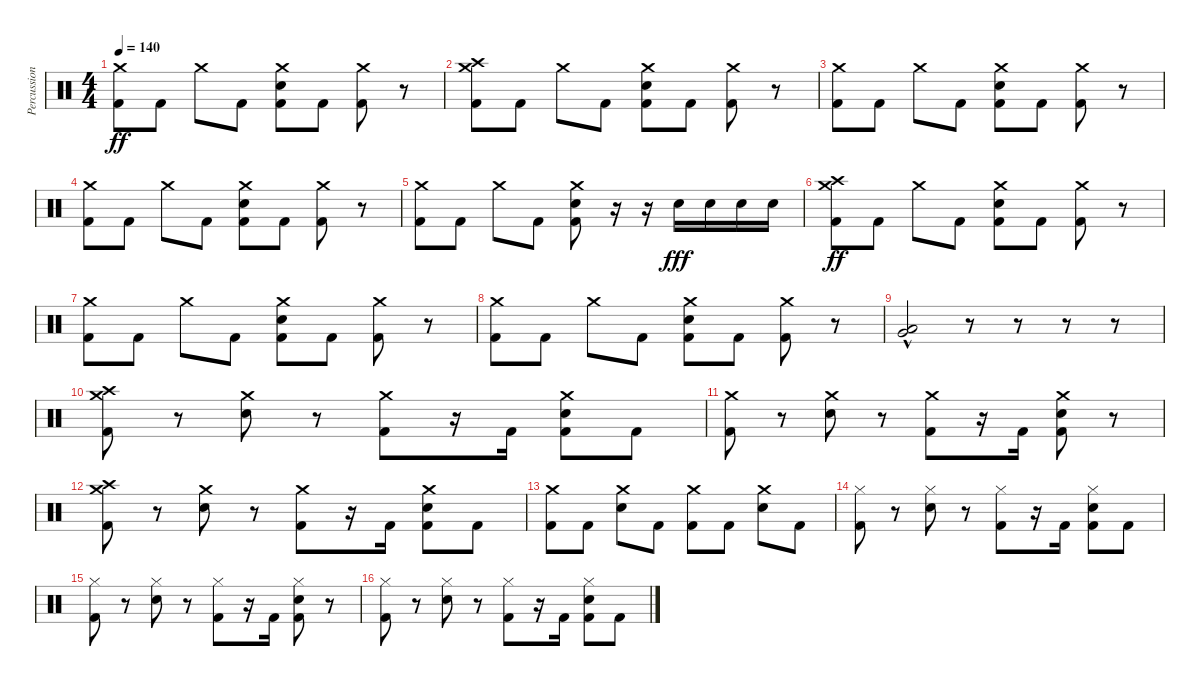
\track ("Percussion" "Percussion") {instrument percussion}
\staff {score}
\articulation defaults
\ts (4 4)
\tempo 140
\clef neutral
\ks c
("Crash medium (hit)" "Kick (hit) 2").8{dy ff} "Kick (hit) 2".8 "Crash medium (hit)".8 "Kick (hit) 2".8 ("Crash medium (hit)" "Electric Snare (hit)" "Kick (hit) 2").8 "Kick (hit) 2".8 ("Crash medium (hit)" "Kick (hit) 2").8 r.8 |
("Crash medium (hit)" "Crash high (hit)" "Kick (hit) 2").8 "Kick (hit) 2".8 "Crash medium (hit)".8 "Kick (hit) 2".8 ("Crash medium (hit)" "Electric Snare (hit)" "Kick (hit) 2").8 "Kick (hit) 2".8 ("Crash medium (hit)" "Kick (hit) 2").8 r.8 |
("Crash medium (hit)" "Kick (hit) 2").8 "Kick (hit) 2".8 "Crash medium (hit)".8 "Kick (hit) 2".8 ("Crash medium (hit)" "Electric Snare (hit)" "Kick (hit) 2").8 "Kick (hit) 2".8 ("Crash medium (hit)" "Kick (hit) 2").8 r.8 |
("Crash medium (hit)" "Kick (hit) 2").8 "Kick (hit) 2".8 "Crash medium (hit)".8 "Kick (hit) 2".8 ("Crash medium (hit)" "Electric Snare (hit)" "Kick (hit) 2").8 "Kick (hit) 2".8 ("Crash medium (hit)" "Kick (hit) 2").8 r.8 |
("Crash medium (hit)" "Kick (hit) 2").8 "Kick (hit) 2".8 "Crash medium (hit)".8 "Kick (hit) 2".8 ("Crash medium (hit)" "Electric Snare (hit)" "Kick (hit) 2").8 r.16 r.16 "Electric Snare (hit)".16{dy fff} "Electric Snare (hit)".16 "Electric Snare (hit)".16 "Electric Snare (hit)".16 |
("Crash medium (hit)" "Crash high (hit)" "Kick (hit) 2").8{dy ff} "Kick (hit) 2".8 "Crash medium (hit)".8 "Kick (hit) 2".8 ("Crash medium (hit)" "Electric Snare (hit)" "Kick (hit) 2").8 "Kick (hit) 2".8 ("Crash medium (hit)" "Kick (hit) 2").8 r.8 |
("Crash medium (hit)" "Kick (hit) 2").8 "Kick (hit) 2".8 "Crash medium (hit)".8 "Kick (hit) 2".8 ("Crash medium (hit)" "Electric Snare (hit)" "Kick (hit) 2").8 "Kick (hit) 2".8 ("Crash medium (hit)" "Kick (hit) 2").8 r.8 |
("Crash medium (hit)" "Kick (hit) 2").8 "Kick (hit) 2".8 "Crash medium (hit)".8 "Kick (hit) 2".8 ("Crash medium (hit)" "Electric Snare (hit)" "Kick (hit) 2").8 "Kick (hit) 2".8 ("Crash medium (hit)" "Kick (hit) 2").8 r.8 |
("Low Floor Tom (hit)"{hac} "Very Low Tom (hit)").2 r.8 r.8 r.8 r.8 |
("Crash medium (hit)" "Crash high (hit)" "Kick (hit) 2").8 r.8 ("Crash medium (hit)" "Electric Snare (hit)").8 r.8 ("Crash medium (hit)" "Kick (hit) 2").8 r.16 "Kick (hit) 2".16 ("Crash medium (hit)" "Electric Snare (hit)" "Kick (hit) 2").8 "Kick (hit) 2".8 |
("Crash medium (hit)" "Kick (hit) 2").8 r.8 ("Crash medium (hit)" "Electric Snare (hit)").8 r.8 ("Crash medium (hit)" "Kick (hit) 2").8 r.16 "Kick (hit) 2".16 ("Crash medium (hit)" "Electric Snare (hit)" "Kick (hit) 2").8 r.8 |
("Crash medium (hit)" "Crash high (hit)" "Kick (hit) 2").8 r.8 ("Crash medium (hit)" "Electric Snare (hit)").8 r.8 ("Crash medium (hit)" "Kick (hit) 2").8 r.16 "Kick (hit) 2".16 ("Crash medium (hit)" "Electric Snare (hit)" "Kick (hit) 2").8 "Kick (hit) 2".8 |
("Crash medium (hit)" "Kick (hit) 2").8 "Kick (hit) 2".8 ("Crash medium (hit)" "Electric Snare (hit)").8 "Kick (hit) 2".8 ("Crash medium (hit)" "Kick (hit) 2").8 "Kick (hit) 2".8 ("Crash medium (hit)" "Electric Snare (hit)").8 "Kick (hit) 2".8 |
("Hi-Hat (closed)" "Kick (hit) 2").8 r.8 ("Hi-Hat (closed)" "Electric Snare (hit)").8 r.8 ("Hi-Hat (closed)" "Kick (hit) 2").8 r.16 "Kick (hit) 2".16 ("Hi-Hat (closed)" "Electric Snare (hit)" "Kick (hit) 2").8 "Kick (hit) 2".8 |
("Hi-Hat (closed)" "Kick (hit) 2").8 r.8 ("Hi-Hat (closed)" "Electric Snare (hit)").8 r.8 ("Hi-Hat (closed)" "Kick (hit) 2").8 r.16 "Kick (hit) 2".16 ("Hi-Hat (closed)" "Electric Snare (hit)" "Kick (hit) 2").8 r.8 |
("Hi-Hat (closed)" "Kick (hit) 2").8 r.8 ("Hi-Hat (closed)" "Electric Snare (hit)").8 r.8 ("Hi-Hat (closed)" "Kick (hit) 2").8 r.16 "Kick (hit) 2".16 ("Hi-Hat (closed)" "Electric Snare (hit)" "Kick (hit) 2").8 "Kick (hit) 2".8
